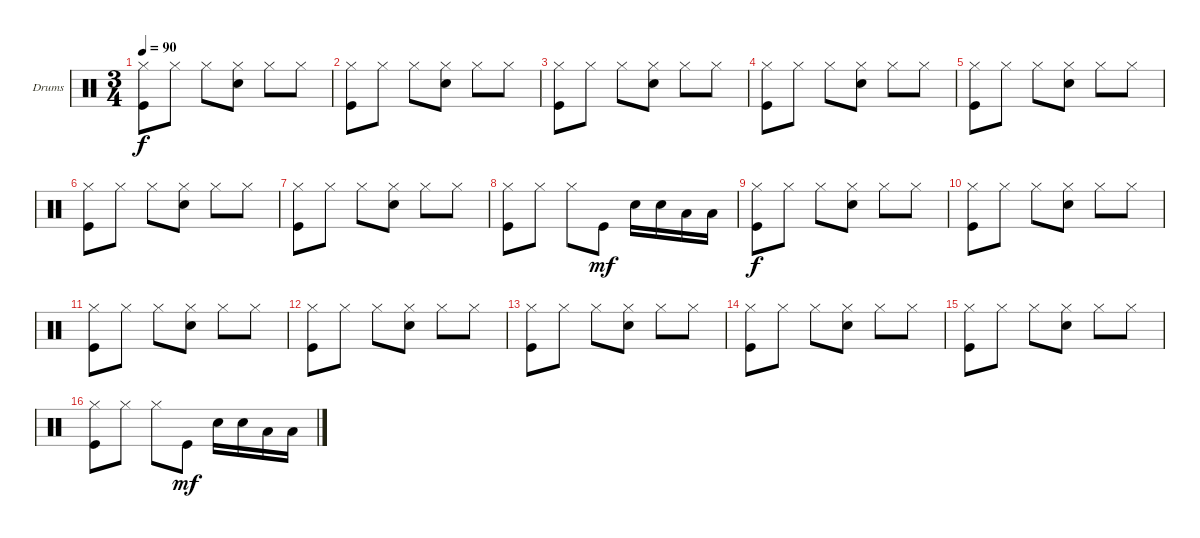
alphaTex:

\defaultSystemsLayout 4
\bracketExtendMode groupsimilarinstruments
\firstSystemTrackNameOrientation horizontal
\otherSystemsTrackNameOrientation horizontal
\track ("Саня" "Drums") {instrument percussion}
\staff {score}
\articulation defaults
\ts (3 4)
\tempo 90
\clef neutral
\ks c
("Kick (hit)" "Hi-Hat (closed)").8{dy f} "Hi-Hat (closed)".8 "Hi-Hat (closed)".8 ("Snare (hit) 2" "Hi-Hat (closed)").8 "Hi-Hat (closed)".8 "Hi-Hat (closed)".8 |
("Kick (hit)" "Hi-Hat (closed)").8 "Hi-Hat (closed)".8 "Hi-Hat (closed)".8 ("Snare (hit) 2" "Hi-Hat (closed)").8 "Hi-Hat (closed)".8 "Hi-Hat (closed)".8 |
("Kick (hit)" "Hi-Hat (closed)").8 "Hi-Hat (closed)".8 "Hi-Hat (closed)".8 ("Snare (hit) 2" "Hi-Hat (closed)").8 "Hi-Hat (closed)".8 "Hi-Hat (closed)".8 |
("Kick (hit)" "Hi-Hat (closed)").8 "Hi-Hat (closed)".8 "Hi-Hat (closed)".8 ("Snare (hit) 2" "Hi-Hat (closed)").8 "Hi-Hat (closed)".8 "Hi-Hat (closed)".8 |
("Kick (hit)" "Hi-Hat (closed)").8 "Hi-Hat (closed)".8 "Hi-Hat (closed)".8 ("Snare (hit) 2" "Hi-Hat (closed)").8 "Hi-Hat (closed)".8 "Hi-Hat (closed)".8 |
("Kick (hit)" "Hi-Hat (closed)").8 "Hi-Hat (closed)".8 "Hi-Hat (closed)".8 ("Snare (hit) 2" "Hi-Hat (closed)").8 "Hi-Hat (closed)".8 "Hi-Hat (closed)".8 |
("Kick (hit)" "Hi-Hat (closed)").8 "Hi-Hat (closed)".8 "Hi-Hat (closed)".8 ("Snare (hit) 2" "Hi-Hat (closed)").8 "Hi-Hat (closed)".8 "Hi-Hat (closed)".8 |
("Kick (hit)" "Hi-Hat (closed)").8 "Hi-Hat (closed)".8 "Hi-Hat (closed)".8 "Kick (hit)".8{dy mf} "Snare (hit) 2".16 "Snare (hit) 2".16 "Low Tom (hit)".16 "Low Tom (hit)".16 |
("Kick (hit)" "Hi-Hat (closed)").8{dy f} "Hi-Hat (closed)".8 "Hi-Hat (closed)".8 ("Snare (hit) 2" "Hi-Hat (closed)").8 "Hi-Hat (closed)".8 "Hi-Hat (closed)".8 |
("Kick (hit)" "Hi-Hat (closed)").8 "Hi-Hat (closed)".8 "Hi-Hat (closed)".8 ("Snare (hit) 2" "Hi-Hat (closed)").8 "Hi-Hat (closed)".8 "Hi-Hat (closed)".8 |
("Kick (hit)" "Hi-Hat (closed)").8 "Hi-Hat (closed)".8 "Hi-Hat (closed)".8 ("Snare (hit) 2" "Hi-Hat (closed)").8 "Hi-Hat (closed)".8 "Hi-Hat (closed)".8 |
("Kick (hit)" "Hi-Hat (closed)").8 "Hi-Hat (closed)".8 "Hi-Hat (closed)".8 ("Snare (hit) 2" "Hi-Hat (closed)").8 "Hi-Hat (closed)".8 "Hi-Hat (closed)".8 |
("Kick (hit)" "Hi-Hat (closed)").8 "Hi-Hat (closed)".8 "Hi-Hat (closed)".8 ("Snare (hit) 2" "Hi-Hat (closed)").8 "Hi-Hat (closed)".8 "Hi-Hat (closed)".8 |
("Kick (hit)" "Hi-Hat (closed)").8 "Hi-Hat (closed)".8 "Hi-Hat (closed)".8 ("Snare (hit) 2" "Hi-Hat (closed)").8 "Hi-Hat (closed)".8 "Hi-Hat (closed)".8 |
("Kick (hit)" "Hi-Hat (closed)").8 "Hi-Hat (closed)".8 "Hi-Hat (closed)".8 ("Snare (hit) 2" "Hi-Hat (closed)").8 "Hi-Hat (closed)".8 "Hi-Hat (closed)".8 |
("Kick (hit)" "Hi-Hat (closed)").8 "Hi-Hat (closed)".8 "Hi-Hat (closed)".8 "Kick (hit)".8{dy mf} "Snare (hit) 2".16 "Snare (hit) 2".16 "Low Tom (hit)".16 "Low Tom (hit)".16
